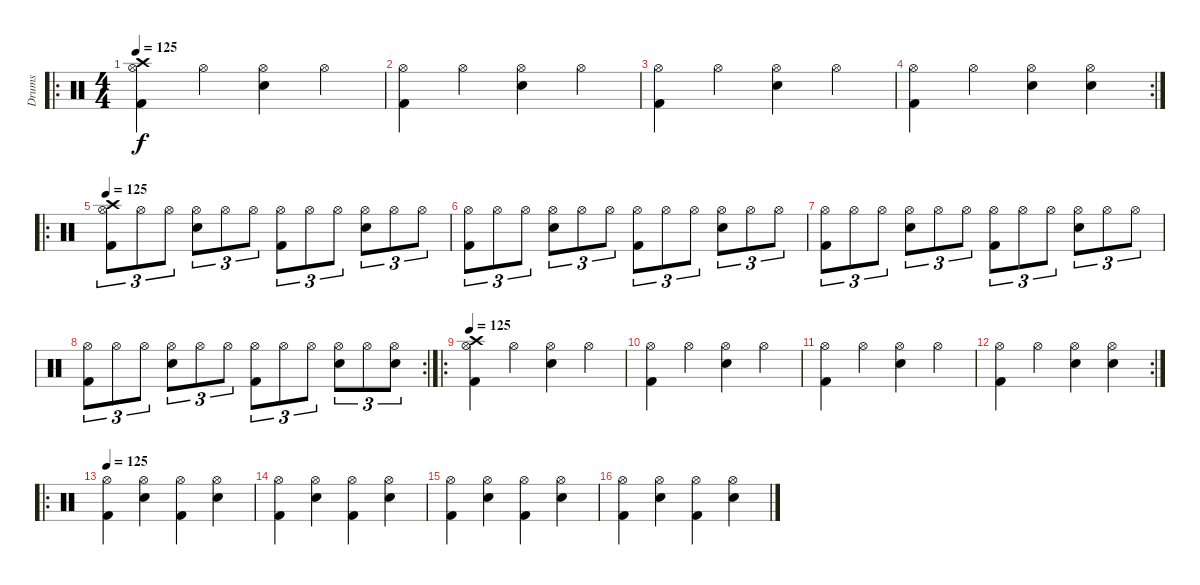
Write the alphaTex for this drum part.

\track ("Drums" "Drums") {instrument percussion}
\staff {score}
\articulation defaults
\ro
\ts (4 4)
\tempo 125
\clef neutral
\ks c
("Kick (hit) 2" "Hi-Hat (open)" "Crash high (hit)").4{dy f} "Hi-Hat (open)".4 ("Snare (hit) 2" "Hi-Hat (open)").4 "Hi-Hat (open)".4 |
("Kick (hit) 2" "Hi-Hat (open)").4 "Hi-Hat (open)".4 ("Snare (hit) 2" "Hi-Hat (open)").4 "Hi-Hat (open)".4 |
("Kick (hit) 2" "Hi-Hat (open)").4 "Hi-Hat (open)".4 ("Snare (hit) 2" "Hi-Hat (open)").4 "Hi-Hat (open)".4 |
\rc 2
("Kick (hit) 2" "Hi-Hat (open)").4 "Hi-Hat (open)".4 ("Snare (hit) 2" "Hi-Hat (open)").4 ("Snare (hit) 2" "Hi-Hat (open)").4 |
\ro
\tempo 125
("Kick (hit) 2" "Hi-Hat (open)" "Crash high (hit)").8{tu (3 2)} "Hi-Hat (open)".8{tu (3 2)} "Hi-Hat (open)".8{tu (3 2)} ("Snare (hit) 2" "Hi-Hat (open)").8{tu (3 2)} "Hi-Hat (open)".8{tu (3 2)} "Hi-Hat (open)".8{tu (3 2)} ("Kick (hit) 2" "Hi-Hat (open)").8{tu (3 2)} "Hi-Hat (open)".8{tu (3 2)} "Hi-Hat (open)".8{tu (3 2)} ("Snare (hit) 2" "Hi-Hat (open)").8{tu (3 2)} "Hi-Hat (open)".8{tu (3 2)} "Hi-Hat (open)".8{tu (3 2)} |
("Kick (hit) 2" "Hi-Hat (open)").8{tu (3 2)} "Hi-Hat (open)".8{tu (3 2)} "Hi-Hat (open)".8{tu (3 2)} ("Snare (hit) 2" "Hi-Hat (open)").8{tu (3 2)} "Hi-Hat (open)".8{tu (3 2)} "Hi-Hat (open)".8{tu (3 2)} ("Kick (hit) 2" "Hi-Hat (open)").8{tu (3 2)} "Hi-Hat (open)".8{tu (3 2)} "Hi-Hat (open)".8{tu (3 2)} ("Snare (hit) 2" "Hi-Hat (open)").8{tu (3 2)} "Hi-Hat (open)".8{tu (3 2)} "Hi-Hat (open)".8{tu (3 2)} |
("Kick (hit) 2" "Hi-Hat (open)").8{tu (3 2)} "Hi-Hat (open)".8{tu (3 2)} "Hi-Hat (open)".8{tu (3 2)} ("Snare (hit) 2" "Hi-Hat (open)").8{tu (3 2)} "Hi-Hat (open)".8{tu (3 2)} "Hi-Hat (open)".8{tu (3 2)} ("Kick (hit) 2" "Hi-Hat (open)").8{tu (3 2)} "Hi-Hat (open)".8{tu (3 2)} "Hi-Hat (open)".8{tu (3 2)} ("Snare (hit) 2" "Hi-Hat (open)").8{tu (3 2)} "Hi-Hat (open)".8{tu (3 2)} "Hi-Hat (open)".8{tu (3 2)} |
\rc 2
("Kick (hit) 2" "Hi-Hat (open)").8{tu (3 2)} "Hi-Hat (open)".8{tu (3 2)} "Hi-Hat (open)".8{tu (3 2)} ("Snare (hit) 2" "Hi-Hat (open)").8{tu (3 2)} "Hi-Hat (open)".8{tu (3 2)} "Hi-Hat (open)".8{tu (3 2)} ("Kick (hit) 2" "Hi-Hat (open)").8{tu (3 2)} "Hi-Hat (open)".8{tu (3 2)} "Hi-Hat (open)".8{tu (3 2)} ("Snare (hit) 2" "Hi-Hat (open)").8{tu (3 2)} "Hi-Hat (open)".8{tu (3 2)} ("Snare (hit) 2" "Hi-Hat (open)").8{tu (3 2)} |
\ro
\tempo 125
("Kick (hit) 2" "Hi-Hat (open)" "Crash high (hit)").4 "Hi-Hat (open)".4 ("Snare (hit) 2" "Hi-Hat (open)").4 "Hi-Hat (open)".4 |
("Kick (hit) 2" "Hi-Hat (open)").4 "Hi-Hat (open)".4 ("Snare (hit) 2" "Hi-Hat (open)").4 "Hi-Hat (open)".4 |
("Kick (hit) 2" "Hi-Hat (open)").4 "Hi-Hat (open)".4 ("Snare (hit) 2" "Hi-Hat (open)").4 "Hi-Hat (open)".4 |
\rc 2
("Kick (hit) 2" "Hi-Hat (open)").4 "Hi-Hat (open)".4 ("Snare (hit) 2" "Hi-Hat (open)").4 ("Snare (hit) 2" "Hi-Hat (open)").4 |
\ro
\tempo 125
("Kick (hit) 2" "Hi-Hat (open)").4 ("Snare (hit) 2" "Hi-Hat (open)").4 ("Kick (hit) 2" "Hi-Hat (open)").4 ("Snare (hit) 2" "Hi-Hat (open)").4 |
("Kick (hit) 2" "Hi-Hat (open)").4 ("Snare (hit) 2" "Hi-Hat (open)").4 ("Kick (hit) 2" "Hi-Hat (open)").4 ("Snare (hit) 2" "Hi-Hat (open)").4 |
("Kick (hit) 2" "Hi-Hat (open)").4 ("Snare (hit) 2" "Hi-Hat (open)").4 ("Kick (hit) 2" "Hi-Hat (open)").4 ("Snare (hit) 2" "Hi-Hat (open)").4 |
("Kick (hit) 2" "Hi-Hat (open)").4 ("Snare (hit) 2" "Hi-Hat (open)").4 ("Kick (hit) 2" "Hi-Hat (open)").4 ("Snare (hit) 2" "Hi-Hat (open)").4
